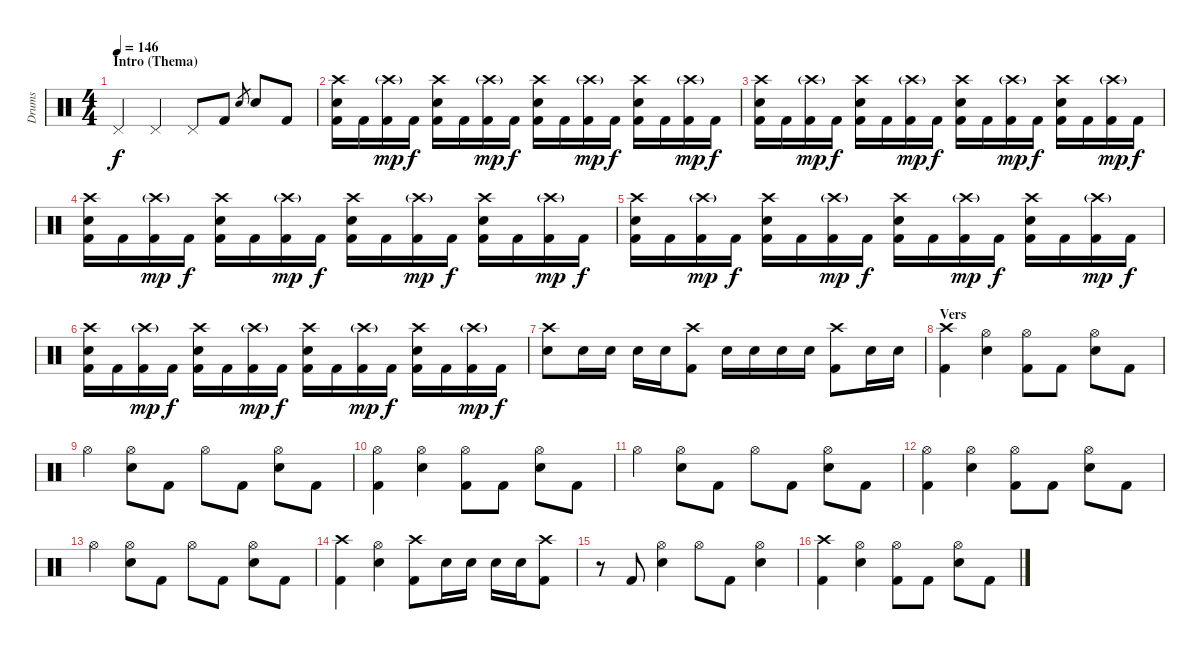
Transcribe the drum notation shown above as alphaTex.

\track ("Drums" "Drums") {instrument percussion}
\staff {score}
\articulation defaults
\ts (4 4)
\section ("" "Intro (Thema)")
\tempo 146
\clef neutral
\ks c "Pedal Hi-Hat (hit)".4{dy f} "Pedal Hi-Hat (hit)".4 "Pedal Hi-Hat (hit)".8 "Kick (hit) 2".8 "Electric Snare (hit)".8{gr} "Electric Snare (hit)".8 "Kick (hit) 2".8
|
("Crash high (hit)" "Electric Snare (hit)" "Kick (hit) 2").16 "Kick (hit) 2".16 ("Crash high (hit)"{g} "Kick (hit) 2").16{dy mp} "Kick (hit) 2".16{dy f} ("Crash high (hit)" "Electric Snare (hit)" "Kick (hit) 2").16 "Kick (hit) 2".16 ("Crash high (hit)"{g} "Kick (hit) 2").16{dy mp} "Kick (hit) 2".16{dy f} ("Crash high (hit)" "Electric Snare (hit)" "Kick (hit) 2").16 "Kick (hit) 2".16 ("Crash high (hit)"{g} "Kick (hit) 2").16{dy mp} "Kick (hit) 2".16{dy f} ("Crash high (hit)" "Electric Snare (hit)" "Kick (hit) 2").16 "Kick (hit) 2".16 ("Crash high (hit)"{g} "Kick (hit) 2").16{dy mp} "Kick (hit) 2".16{dy f} |
("Crash high (hit)" "Electric Snare (hit)" "Kick (hit) 2").16 "Kick (hit) 2".16 ("Crash high (hit)"{g} "Kick (hit) 2").16{dy mp} "Kick (hit) 2".16{dy f} ("Crash high (hit)" "Electric Snare (hit)" "Kick (hit) 2").16 "Kick (hit) 2".16 ("Crash high (hit)"{g} "Kick (hit) 2").16{dy mp} "Kick (hit) 2".16{dy f} ("Crash high (hit)" "Electric Snare (hit)" "Kick (hit) 2").16 "Kick (hit) 2".16 ("Crash high (hit)"{g} "Kick (hit) 2").16{dy mp} "Kick (hit) 2".16{dy f} ("Crash high (hit)" "Electric Snare (hit)" "Kick (hit) 2").16 "Kick (hit) 2".16 ("Crash high (hit)"{g} "Kick (hit) 2").16{dy mp} "Kick (hit) 2".16{dy f} |
("Crash high (hit)" "Electric Snare (hit)" "Kick (hit) 2").16 "Kick (hit) 2".16 ("Crash high (hit)"{g} "Kick (hit) 2").16{dy mp} "Kick (hit) 2".16{dy f} ("Crash high (hit)" "Electric Snare (hit)" "Kick (hit) 2").16 "Kick (hit) 2".16 ("Crash high (hit)"{g} "Kick (hit) 2").16{dy mp} "Kick (hit) 2".16{dy f} ("Crash high (hit)" "Electric Snare (hit)" "Kick (hit) 2").16 "Kick (hit) 2".16 ("Crash high (hit)"{g} "Kick (hit) 2").16{dy mp} "Kick (hit) 2".16{dy f} ("Crash high (hit)" "Electric Snare (hit)" "Kick (hit) 2").16 "Kick (hit) 2".16 ("Crash high (hit)"{g} "Kick (hit) 2").16{dy mp} "Kick (hit) 2".16{dy f} |
("Crash high (hit)" "Electric Snare (hit)" "Kick (hit) 2").16 "Kick (hit) 2".16 ("Crash high (hit)"{g} "Kick (hit) 2").16{dy mp} "Kick (hit) 2".16{dy f} ("Crash high (hit)" "Electric Snare (hit)" "Kick (hit) 2").16 "Kick (hit) 2".16 ("Crash high (hit)"{g} "Kick (hit) 2").16{dy mp} "Kick (hit) 2".16{dy f} ("Crash high (hit)" "Electric Snare (hit)" "Kick (hit) 2").16 "Kick (hit) 2".16 ("Crash high (hit)"{g} "Kick (hit) 2").16{dy mp} "Kick (hit) 2".16{dy f} ("Crash high (hit)" "Electric Snare (hit)" "Kick (hit) 2").16 "Kick (hit) 2".16 ("Crash high (hit)"{g} "Kick (hit) 2").16{dy mp} "Kick (hit) 2".16{dy f} |
("Crash high (hit)" "Electric Snare (hit)" "Kick (hit) 2").16 "Kick (hit) 2".16 ("Crash high (hit)"{g} "Kick (hit) 2").16{dy mp} "Kick (hit) 2".16{dy f} ("Crash high (hit)" "Electric Snare (hit)" "Kick (hit) 2").16 "Kick (hit) 2".16 ("Crash high (hit)"{g} "Kick (hit) 2").16{dy mp} "Kick (hit) 2".16{dy f} ("Crash high (hit)" "Electric Snare (hit)" "Kick (hit) 2").16 "Kick (hit) 2".16 ("Crash high (hit)"{g} "Kick (hit) 2").16{dy mp} "Kick (hit) 2".16{dy f} ("Crash high (hit)" "Electric Snare (hit)" "Kick (hit) 2").16 "Kick (hit) 2".16 ("Crash high (hit)"{g} "Kick (hit) 2").16{dy mp} "Kick (hit) 2".16{dy f} |
("Crash high (hit)" "Electric Snare (hit)").8 "Electric Snare (hit)".16 "Electric Snare (hit)".16 "Electric Snare (hit)".16 "Electric Snare (hit)".16 ("Crash high (hit)" "Kick (hit) 2").8 "Electric Snare (hit)".16 "Electric Snare (hit)".16 "Electric Snare (hit)".16 "Electric Snare (hit)".16 ("Crash high (hit)" "Kick (hit) 2").8 "Electric Snare (hit)".16 "Electric Snare (hit)".16 |
\section ("" "Vers")
("Crash high (hit)" "Kick (hit) 2").4 ("Hi-Hat (open)" "Electric Snare (hit)").4 ("Hi-Hat (open)" "Kick (hit) 2").8 "Kick (hit) 2".8 ("Hi-Hat (open)" "Electric Snare (hit)").8 "Kick (hit) 2".8 |
"Hi-Hat (open)".4 ("Hi-Hat (open)" "Electric Snare (hit)").8 "Kick (hit) 2".8 "Hi-Hat (open)".8 "Kick (hit) 2".8 ("Hi-Hat (open)" "Electric Snare (hit)").8 "Kick (hit) 2".8 |
("Hi-Hat (open)" "Kick (hit) 2").4 ("Hi-Hat (open)" "Electric Snare (hit)").4 ("Hi-Hat (open)" "Kick (hit) 2").8 "Kick (hit) 2".8 ("Hi-Hat (open)" "Electric Snare (hit)").8 "Kick (hit) 2".8 |
"Hi-Hat (open)".4 ("Hi-Hat (open)" "Electric Snare (hit)").8 "Kick (hit) 2".8 "Hi-Hat (open)".8 "Kick (hit) 2".8 ("Hi-Hat (open)" "Electric Snare (hit)").8 "Kick (hit) 2".8 |
("Hi-Hat (open)" "Kick (hit) 2").4 ("Hi-Hat (open)" "Electric Snare (hit)").4 ("Hi-Hat (open)" "Kick (hit) 2").8 "Kick (hit) 2".8 ("Hi-Hat (open)" "Electric Snare (hit)").8 "Kick (hit) 2".8 |
"Hi-Hat (open)".4 ("Hi-Hat (open)" "Electric Snare (hit)").8 "Kick (hit) 2".8 "Hi-Hat (open)".8 "Kick (hit) 2".8 ("Hi-Hat (open)" "Electric Snare (hit)").8 "Kick (hit) 2".8 |
("Crash high (hit)" "Kick (hit) 2").4 ("Hi-Hat (open)" "Electric Snare (hit)").4 ("Crash high (hit)" "Kick (hit) 2").8 "Electric Snare (hit)".16 "Electric Snare (hit)".16 "Electric Snare (hit)".16 "Electric Snare (hit)".16 ("Crash high (hit)" "Kick (hit) 2").8 |
r.8 "Kick (hit) 2".8 ("Hi-Hat (open)" "Electric Snare (hit)").4 "Hi-Hat (open)".8 "Kick (hit) 2".8 ("Hi-Hat (open)" "Electric Snare (hit)").4 |
("Crash high (hit)" "Kick (hit) 2").4 ("Hi-Hat (open)" "Electric Snare (hit)").4 ("Hi-Hat (open)" "Kick (hit) 2").8 "Kick (hit) 2".8 ("Hi-Hat (open)" "Electric Snare (hit)").8 "Kick (hit) 2".8
